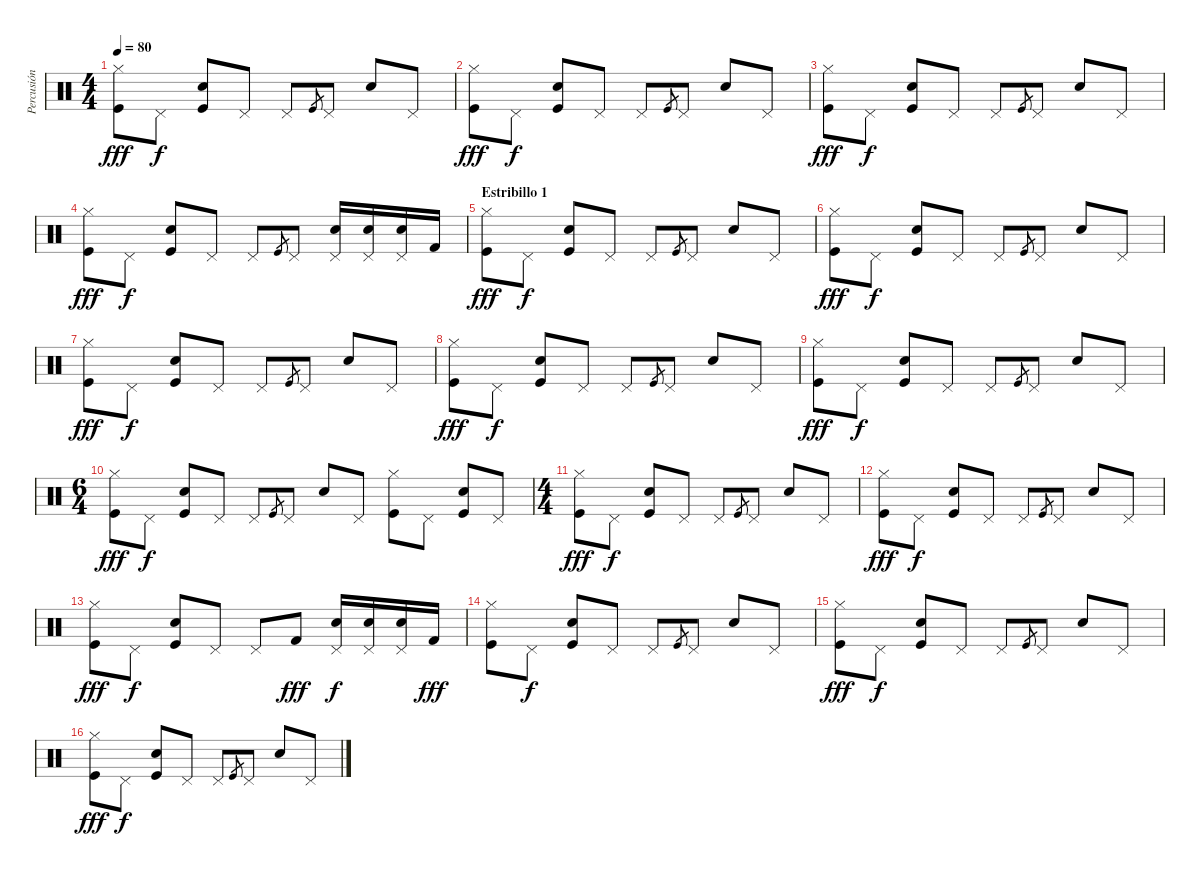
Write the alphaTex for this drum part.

\track ("Percusión (Percussion)" "Percusión ") {instrument percussion}
\staff {score}
\articulation defaults
\ts (4 4)
\tempo 80
\clef neutral
\ks c
("Kick (hit)" "Hi-Hat (closed)").8{dy fff} "Pedal Hi-Hat (hit)".8{dy f} ("Snare (hit) 2" "Kick (hit)").8 "Pedal Hi-Hat (hit)".8 "Pedal Hi-Hat (hit)".8 "Kick (hit)".8{gr} "Pedal Hi-Hat (hit)".8 "Snare (hit) 2".8 "Pedal Hi-Hat (hit)".8 |
("Kick (hit)" "Hi-Hat (closed)").8{dy fff} "Pedal Hi-Hat (hit)".8{dy f} ("Snare (hit) 2" "Kick (hit)").8 "Pedal Hi-Hat (hit)".8 "Pedal Hi-Hat (hit)".8 "Kick (hit)".8{gr} "Pedal Hi-Hat (hit)".8 "Snare (hit) 2".8 "Pedal Hi-Hat (hit)".8 |
("Kick (hit)" "Hi-Hat (closed)").8{dy fff} "Pedal Hi-Hat (hit)".8{dy f} ("Snare (hit) 2" "Kick (hit)").8 "Pedal Hi-Hat (hit)".8 "Pedal Hi-Hat (hit)".8 "Kick (hit)".8{gr} "Pedal Hi-Hat (hit)".8 "Snare (hit) 2".8 "Pedal Hi-Hat (hit)".8 |
("Kick (hit)" "Hi-Hat (closed)").8{dy fff} "Pedal Hi-Hat (hit)".8{dy f} ("Snare (hit) 2" "Kick (hit)").8 "Pedal Hi-Hat (hit)".8 "Pedal Hi-Hat (hit)".8 "Kick (hit)".8{gr} "Pedal Hi-Hat (hit)".8 ("Snare (hit) 2" "Pedal Hi-Hat (hit)").16 ("Snare (hit) 2" "Pedal Hi-Hat (hit)").16 ("Snare (hit) 2" "Pedal Hi-Hat (hit)").16 "Kick (hit) 2".16 |
\section ("" "Estribillo 1")
("Kick (hit)" "Hi-Hat (closed)").8{dy fff} "Pedal Hi-Hat (hit)".8{dy f} ("Snare (hit) 2" "Kick (hit)").8 "Pedal Hi-Hat (hit)".8 "Pedal Hi-Hat (hit)".8 "Kick (hit)".8{gr} "Pedal Hi-Hat (hit)".8 "Snare (hit) 2".8 "Pedal Hi-Hat (hit)".8 |
("Kick (hit)" "Hi-Hat (closed)").8{dy fff} "Pedal Hi-Hat (hit)".8{dy f} ("Snare (hit) 2" "Kick (hit)").8 "Pedal Hi-Hat (hit)".8 "Pedal Hi-Hat (hit)".8 "Kick (hit)".8{gr} "Pedal Hi-Hat (hit)".8 "Snare (hit) 2".8 "Pedal Hi-Hat (hit)".8 |
("Kick (hit)" "Hi-Hat (closed)").8{dy fff} "Pedal Hi-Hat (hit)".8{dy f} ("Snare (hit) 2" "Kick (hit)").8 "Pedal Hi-Hat (hit)".8 "Pedal Hi-Hat (hit)".8 "Kick (hit)".8{gr} "Pedal Hi-Hat (hit)".8 "Snare (hit) 2".8 "Pedal Hi-Hat (hit)".8 |
("Kick (hit)" "Hi-Hat (closed)").8{dy fff} "Pedal Hi-Hat (hit)".8{dy f} ("Snare (hit) 2" "Kick (hit)").8 "Pedal Hi-Hat (hit)".8 "Pedal Hi-Hat (hit)".8 "Kick (hit)".8{gr} "Pedal Hi-Hat (hit)".8 "Snare (hit) 2".8 "Pedal Hi-Hat (hit)".8 |
("Kick (hit)" "Hi-Hat (closed)").8{dy fff} "Pedal Hi-Hat (hit)".8{dy f} ("Snare (hit) 2" "Kick (hit)").8 "Pedal Hi-Hat (hit)".8 "Pedal Hi-Hat (hit)".8 "Kick (hit)".8{gr} "Pedal Hi-Hat (hit)".8 "Snare (hit) 2".8 "Pedal Hi-Hat (hit)".8 |
\ts (6 4)
("Kick (hit)" "Hi-Hat (closed)").8{dy fff} "Pedal Hi-Hat (hit)".8{dy f} ("Snare (hit) 2" "Kick (hit)").8 "Pedal Hi-Hat (hit)".8 "Pedal Hi-Hat (hit)".8 "Kick (hit)".8{gr} "Pedal Hi-Hat (hit)".8 "Snare (hit) 2".8 "Pedal Hi-Hat (hit)".8 ("Kick (hit)" "Hi-Hat (closed)").8 "Pedal Hi-Hat (hit)".8 ("Snare (hit) 2" "Kick (hit)").8 "Pedal Hi-Hat (hit)".8 |
\ts (4 4)
("Kick (hit)" "Hi-Hat (closed)").8{dy fff} "Pedal Hi-Hat (hit)".8{dy f} ("Snare (hit) 2" "Kick (hit)").8 "Pedal Hi-Hat (hit)".8 "Pedal Hi-Hat (hit)".8 "Kick (hit)".8{gr} "Pedal Hi-Hat (hit)".8 "Snare (hit) 2".8 "Pedal Hi-Hat (hit)".8 |
("Kick (hit)" "Hi-Hat (closed)").8{dy fff} "Pedal Hi-Hat (hit)".8{dy f} ("Snare (hit) 2" "Kick (hit)").8 "Pedal Hi-Hat (hit)".8 "Pedal Hi-Hat (hit)".8 "Kick (hit)".8{gr} "Pedal Hi-Hat (hit)".8 "Snare (hit) 2".8 "Pedal Hi-Hat (hit)".8 |
("Kick (hit)" "Hi-Hat (closed)").8{dy fff} "Pedal Hi-Hat (hit)".8{dy f} ("Snare (hit) 2" "Kick (hit)").8 "Pedal Hi-Hat (hit)".8 "Pedal Hi-Hat (hit)".8 "Kick (hit) 2".8{dy fff} ("Snare (hit) 2" "Pedal Hi-Hat (hit)").16{dy f} ("Snare (hit) 2" "Pedal Hi-Hat (hit)").16 ("Snare (hit) 2" "Pedal Hi-Hat (hit)").16 "Kick (hit) 2".16{dy fff} |
("Kick (hit)" "Hi-Hat (closed)").8 "Pedal Hi-Hat (hit)".8{dy f} ("Snare (hit) 2" "Kick (hit)").8 "Pedal Hi-Hat (hit)".8 "Pedal Hi-Hat (hit)".8 "Kick (hit)".8{gr} "Pedal Hi-Hat (hit)".8 "Snare (hit) 2".8 "Pedal Hi-Hat (hit)".8 |
("Kick (hit)" "Hi-Hat (closed)").8{dy fff} "Pedal Hi-Hat (hit)".8{dy f} ("Snare (hit) 2" "Kick (hit)").8 "Pedal Hi-Hat (hit)".8 "Pedal Hi-Hat (hit)".8 "Kick (hit)".8{gr} "Pedal Hi-Hat (hit)".8 "Snare (hit) 2".8 "Pedal Hi-Hat (hit)".8 |
("Kick (hit)" "Hi-Hat (closed)").8{dy fff} "Pedal Hi-Hat (hit)".8{dy f} ("Snare (hit) 2" "Kick (hit)").8 "Pedal Hi-Hat (hit)".8 "Pedal Hi-Hat (hit)".8 "Kick (hit)".8{gr} "Pedal Hi-Hat (hit)".8 "Snare (hit) 2".8 "Pedal Hi-Hat (hit)".8
